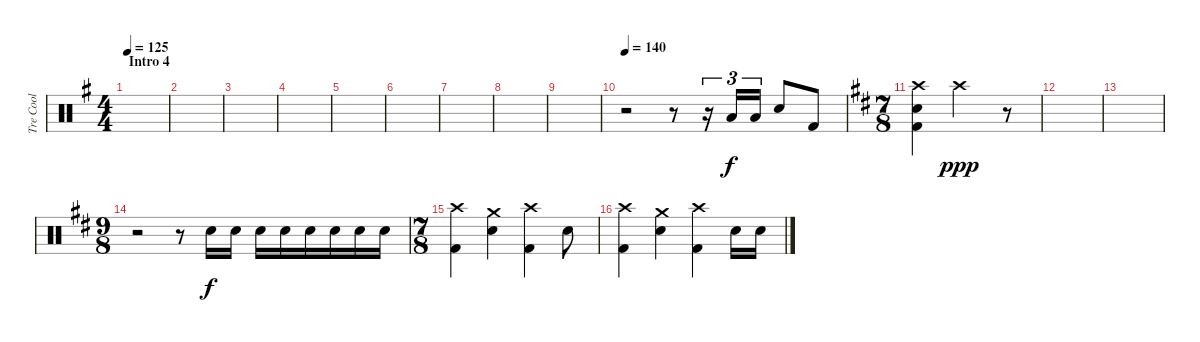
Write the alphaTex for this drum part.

\track ("Tre Cool" "Tre Cool") {instrument percussion}
\staff {score}
\articulation defaults
\ts (4 4)
\section ("" "Intro 4")
\tempo 125
\clef neutral
\ks g
|
|
|
|
|
|
|
|
|
\tempo 140
r.2 r.8 r.16{tu (3 2)} "Low Tom (hit)".16{tu (3 2)} "Low Tom (hit)".16{tu (3 2)} "Electric Snare (hit)".8 "Kick (hit) 2".8 |
\ts (7 8)
\ks d
("Electric Snare (hit)" "Kick (hit) 2" "Crash high (hit)").4 "Crash high (hit)".2{dy ppp} r.8 |
|
|
\ts (9 8)
r.2 r.8 "Electric Snare (hit)".16{dy f} "Electric Snare (hit)".16 "Electric Snare (hit)".16 "Electric Snare (hit)".16 "Electric Snare (hit)".16 "Electric Snare (hit)".16 "Electric Snare (hit)".16 "Electric Snare (hit)".16 |
\ts (7 8)
("Crash high (hit)" "Kick (hit) 2").4 ("Crash medium (hit)" "Electric Snare (hit)").4 ("Crash high (hit)" "Kick (hit) 2").4 "Electric Snare (hit)".8 |
("Crash high (hit)" "Kick (hit) 2").4 ("Crash medium (hit)" "Electric Snare (hit)").4 ("Crash high (hit)" "Kick (hit) 2").4 "Electric Snare (hit)".16 "Electric Snare (hit)".16
